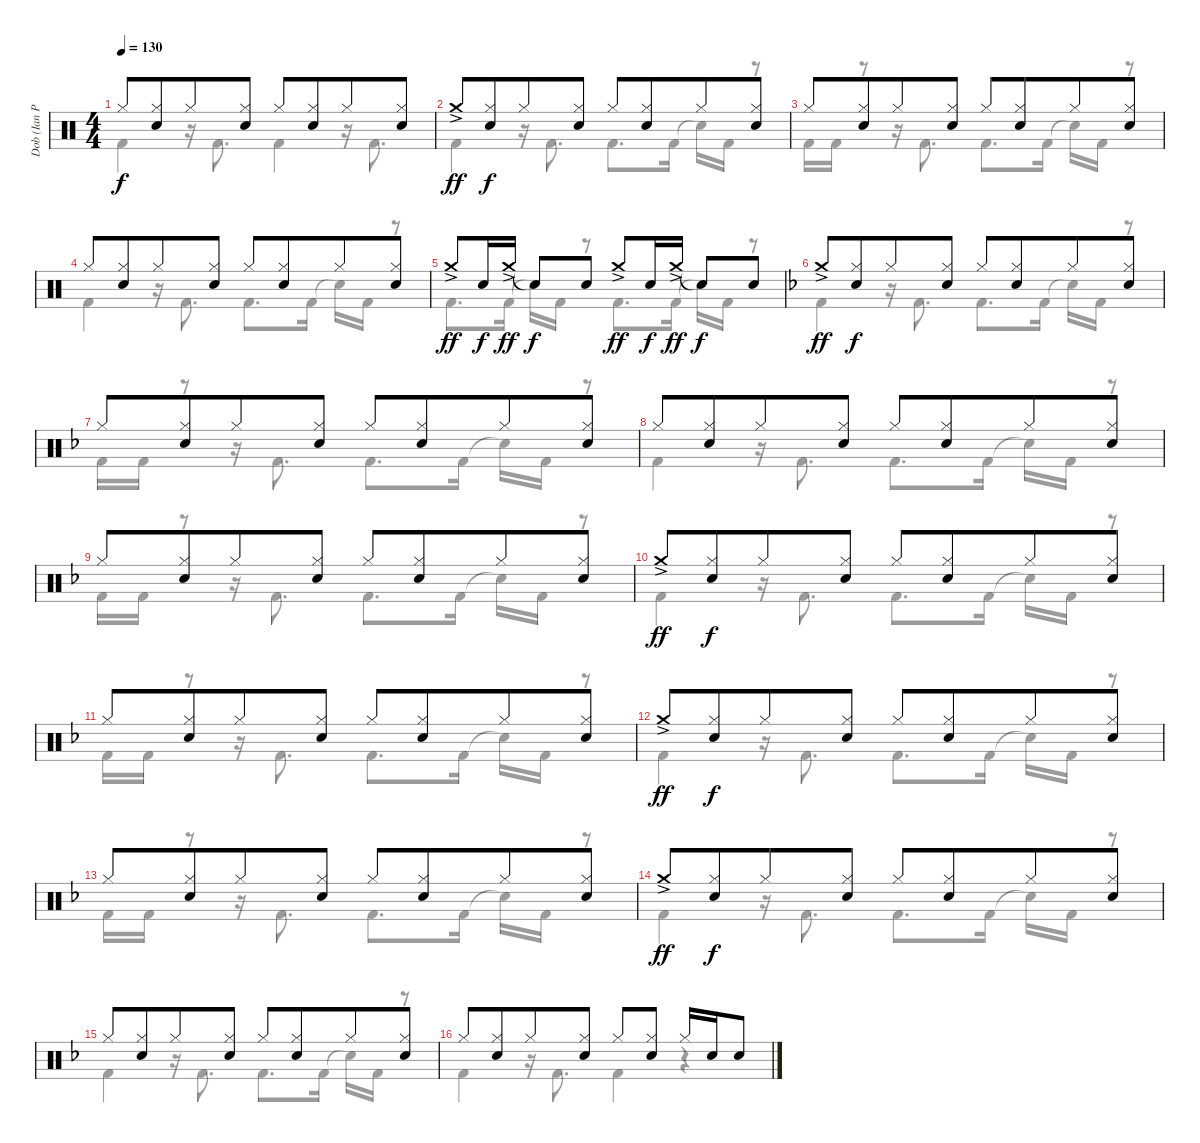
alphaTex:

\track ("Dob (Ian Paice)" "Dob (Ian P") {instrument percussion}
\staff {score}
\articulation defaults
\voice
\ts (4 4)
\tempo 130
\clef neutral
\ks c "Hi-Hat (closed)".8{dy f}
("Hi-Hat (closed)" "Electric Snare (hit)").8{beam merge} "Hi-Hat (closed)".8 ("Hi-Hat (closed)" "Electric Snare (hit)").8 "Hi-Hat (closed)".8 ("Hi-Hat (closed)" "Electric Snare (hit)").8{beam merge} "Hi-Hat (closed)".8 ("Hi-Hat (closed)" "Electric Snare (hit)").8 |
"Crash medium (hit)"{ac}.8{dy ff} ("Hi-Hat (closed)" "Electric Snare (hit)").8{dy f beam merge} "Hi-Hat (closed)".8 ("Hi-Hat (closed)" "Electric Snare (hit)").8 "Hi-Hat (closed)".8 ("Hi-Hat (closed)" "Electric Snare (hit)").8{beam merge} "Hi-Hat (closed)".8 ("Hi-Hat (closed)" "Electric Snare (hit)").8 |
"Hi-Hat (closed)".8 ("Hi-Hat (closed)" "Electric Snare (hit)").8{beam merge} "Hi-Hat (closed)".8 ("Hi-Hat (closed)" "Electric Snare (hit)").8 "Hi-Hat (closed)".8 ("Hi-Hat (closed)" "Electric Snare (hit)").8{beam merge} "Hi-Hat (closed)".8 ("Hi-Hat (closed)" "Electric Snare (hit)").8 |
"Hi-Hat (closed)".8 ("Hi-Hat (closed)" "Electric Snare (hit)").8{beam merge} "Hi-Hat (closed)".8 ("Hi-Hat (closed)" "Electric Snare (hit)").8 "Hi-Hat (closed)".8 ("Hi-Hat (closed)" "Electric Snare (hit)").8{beam merge} "Hi-Hat (closed)".8 ("Hi-Hat (closed)" "Electric Snare (hit)").8 |
"Crash medium (hit)"{ac}.8{dy ff} "Electric Snare (hit)".16{dy f} "Crash medium (hit)"{ac}.16{dy ff} "Snare (hit)"{t}.8{dy f} "Electric Snare (hit)".8 "Crash medium (hit)"{ac}.8{dy ff} "Electric Snare (hit)".16{dy f} "Crash medium (hit)"{ac}.16{dy ff} "Snare (hit)"{t}.8{dy f} "Electric Snare (hit)".8 |
\ks f "Crash medium (hit)"{ac}.8{dy ff}
("Hi-Hat (closed)" "Electric Snare (hit)").8{dy f beam merge} "Hi-Hat (closed)".8 ("Hi-Hat (closed)" "Electric Snare (hit)").8 "Hi-Hat (closed)".8 ("Hi-Hat (closed)" "Electric Snare (hit)").8{beam merge} "Hi-Hat (closed)".8 ("Hi-Hat (closed)" "Electric Snare (hit)").8 |
"Hi-Hat (closed)".8 ("Hi-Hat (closed)" "Electric Snare (hit)").8{beam merge} "Hi-Hat (closed)".8 ("Hi-Hat (closed)" "Electric Snare (hit)").8 "Hi-Hat (closed)".8 ("Hi-Hat (closed)" "Electric Snare (hit)").8{beam merge} "Hi-Hat (closed)".8 ("Hi-Hat (closed)" "Electric Snare (hit)").8 |
"Hi-Hat (closed)".8 ("Hi-Hat (closed)" "Electric Snare (hit)").8{beam merge} "Hi-Hat (closed)".8 ("Hi-Hat (closed)" "Electric Snare (hit)").8 "Hi-Hat (closed)".8 ("Hi-Hat (closed)" "Electric Snare (hit)").8{beam merge} "Hi-Hat (closed)".8 ("Hi-Hat (closed)" "Electric Snare (hit)").8 |
"Hi-Hat (closed)".8 ("Hi-Hat (closed)" "Electric Snare (hit)").8{beam merge} "Hi-Hat (closed)".8 ("Hi-Hat (closed)" "Electric Snare (hit)").8 "Hi-Hat (closed)".8 ("Hi-Hat (closed)" "Electric Snare (hit)").8{beam merge} "Hi-Hat (closed)".8 ("Hi-Hat (closed)" "Electric Snare (hit)").8 |
"Crash medium (hit)"{ac}.8{dy ff} ("Hi-Hat (closed)" "Electric Snare (hit)").8{dy f beam merge} "Hi-Hat (closed)".8 ("Hi-Hat (closed)" "Electric Snare (hit)").8 "Hi-Hat (closed)".8 ("Hi-Hat (closed)" "Electric Snare (hit)").8{beam merge} "Hi-Hat (closed)".8 ("Hi-Hat (closed)" "Electric Snare (hit)").8 |
"Hi-Hat (closed)".8 ("Hi-Hat (closed)" "Electric Snare (hit)").8{beam merge} "Hi-Hat (closed)".8 ("Hi-Hat (closed)" "Electric Snare (hit)").8 "Hi-Hat (closed)".8 ("Hi-Hat (closed)" "Electric Snare (hit)").8{beam merge} "Hi-Hat (closed)".8 ("Hi-Hat (closed)" "Electric Snare (hit)").8 |
"Crash medium (hit)"{ac}.8{dy ff} ("Hi-Hat (closed)" "Electric Snare (hit)").8{dy f beam merge} "Hi-Hat (closed)".8 ("Hi-Hat (closed)" "Electric Snare (hit)").8 "Hi-Hat (closed)".8 ("Hi-Hat (closed)" "Electric Snare (hit)").8{beam merge} "Hi-Hat (closed)".8 ("Hi-Hat (closed)" "Electric Snare (hit)").8 |
"Hi-Hat (closed)".8 ("Hi-Hat (closed)" "Electric Snare (hit)").8{beam merge} "Hi-Hat (closed)".8 ("Hi-Hat (closed)" "Electric Snare (hit)").8 "Hi-Hat (closed)".8 ("Hi-Hat (closed)" "Electric Snare (hit)").8{beam merge} "Hi-Hat (closed)".8 ("Hi-Hat (closed)" "Electric Snare (hit)").8 |
"Crash medium (hit)"{ac}.8{dy ff} ("Hi-Hat (closed)" "Electric Snare (hit)").8{dy f beam merge} "Hi-Hat (closed)".8 ("Hi-Hat (closed)" "Electric Snare (hit)").8 "Hi-Hat (closed)".8 ("Hi-Hat (closed)" "Electric Snare (hit)").8{beam merge} "Hi-Hat (closed)".8 ("Hi-Hat (closed)" "Electric Snare (hit)").8 |
"Hi-Hat (closed)".8 ("Hi-Hat (closed)" "Electric Snare (hit)").8{beam merge} "Hi-Hat (closed)".8 ("Hi-Hat (closed)" "Electric Snare (hit)").8 "Hi-Hat (closed)".8 ("Hi-Hat (closed)" "Electric Snare (hit)").8{beam merge} "Hi-Hat (closed)".8 ("Hi-Hat (closed)" "Electric Snare (hit)").8 |
"Hi-Hat (closed)".8 ("Hi-Hat (closed)" "Electric Snare (hit)").8{beam merge} "Hi-Hat (closed)".8 ("Hi-Hat (closed)" "Electric Snare (hit)").8 "Hi-Hat (closed)".8 ("Hi-Hat (closed)" "Electric Snare (hit)").8 "Hi-Hat (closed)".16 "Electric Snare (hit)".16 "Electric Snare (hit)".8
\voice
\clef neutral
\ottava regular
\simile none
\ks c "Kick (hit) 2".4{dy f}
r.16 "Kick (hit) 2".8{d} "Kick (hit) 2".4 r.16 "Kick (hit) 2".8{d} |
"Kick (hit) 2".4 r.16 "Kick (hit) 2".8{d} "Kick (hit) 2".8{d} "Kick (hit) 2".16 "Snare (hit)"{t}.16 "Kick (hit) 2".16 r.8 |
"Kick (hit) 2".16 "Kick (hit) 2".16 r.8 r.16 "Kick (hit) 2".8{d} "Kick (hit) 2".8{d} "Kick (hit) 2".16 "Snare (hit)"{t}.16 "Kick (hit) 2".16 r.8 |
"Kick (hit) 2".4 r.16 "Kick (hit) 2".8{d} "Kick (hit) 2".8{d} "Kick (hit) 2".16 "Snare (hit)"{t}.16 "Kick (hit) 2".16 r.8 |
"Kick (hit) 2".8{d} "Kick (hit) 2".16 "Snare (hit)"{t}.16 "Kick (hit) 2".16 r.8 "Kick (hit) 2".8{d} "Kick (hit) 2".16 "Snare (hit)"{t}.16 "Kick (hit) 2".16 r.8 |
\ks f "Kick (hit) 2".4
r.16 "Kick (hit) 2".8{d} "Kick (hit) 2".8{d} "Kick (hit) 2".16 "Snare (hit)"{t}.16 "Kick (hit) 2".16 r.8 |
"Kick (hit) 2".16 "Kick (hit) 2".16 r.8 r.16 "Kick (hit) 2".8{d} "Kick (hit) 2".8{d} "Kick (hit) 2".16 "Snare (hit)"{t}.16 "Kick (hit) 2".16 r.8 |
"Kick (hit) 2".4 r.16 "Kick (hit) 2".8{d} "Kick (hit) 2".8{d} "Kick (hit) 2".16 "Snare (hit)"{t}.16 "Kick (hit) 2".16 r.8 |
"Kick (hit) 2".16 "Kick (hit) 2".16 r.8 r.16 "Kick (hit) 2".8{d} "Kick (hit) 2".8{d} "Kick (hit) 2".16 "Snare (hit)"{t}.16 "Kick (hit) 2".16 r.8 |
"Kick (hit) 2".4 r.16 "Kick (hit) 2".8{d} "Kick (hit) 2".8{d} "Kick (hit) 2".16 "Snare (hit)"{t}.16 "Kick (hit) 2".16 r.8 |
"Kick (hit) 2".16 "Kick (hit) 2".16 r.8 r.16 "Kick (hit) 2".8{d} "Kick (hit) 2".8{d} "Kick (hit) 2".16 "Snare (hit)"{t}.16 "Kick (hit) 2".16 r.8 |
"Kick (hit) 2".4 r.16 "Kick (hit) 2".8{d} "Kick (hit) 2".8{d} "Kick (hit) 2".16 "Snare (hit)"{t}.16 "Kick (hit) 2".16 r.8 |
"Kick (hit) 2".16 "Kick (hit) 2".16 r.8 r.16 "Kick (hit) 2".8{d} "Kick (hit) 2".8{d} "Kick (hit) 2".16 "Snare (hit)"{t}.16 "Kick (hit) 2".16 r.8 |
"Kick (hit) 2".4 r.16 "Kick (hit) 2".8{d} "Kick (hit) 2".8{d} "Kick (hit) 2".16 "Snare (hit)"{t}.16 "Kick (hit) 2".16 r.8 |
"Kick (hit) 2".4 r.16 "Kick (hit) 2".8{d} "Kick (hit) 2".8{d} "Kick (hit) 2".16 "Snare (hit)"{t}.16 "Kick (hit) 2".16 r.8 |
"Kick (hit) 2".4 r.16 "Kick (hit) 2".8{d} "Kick (hit) 2".4 r.4
